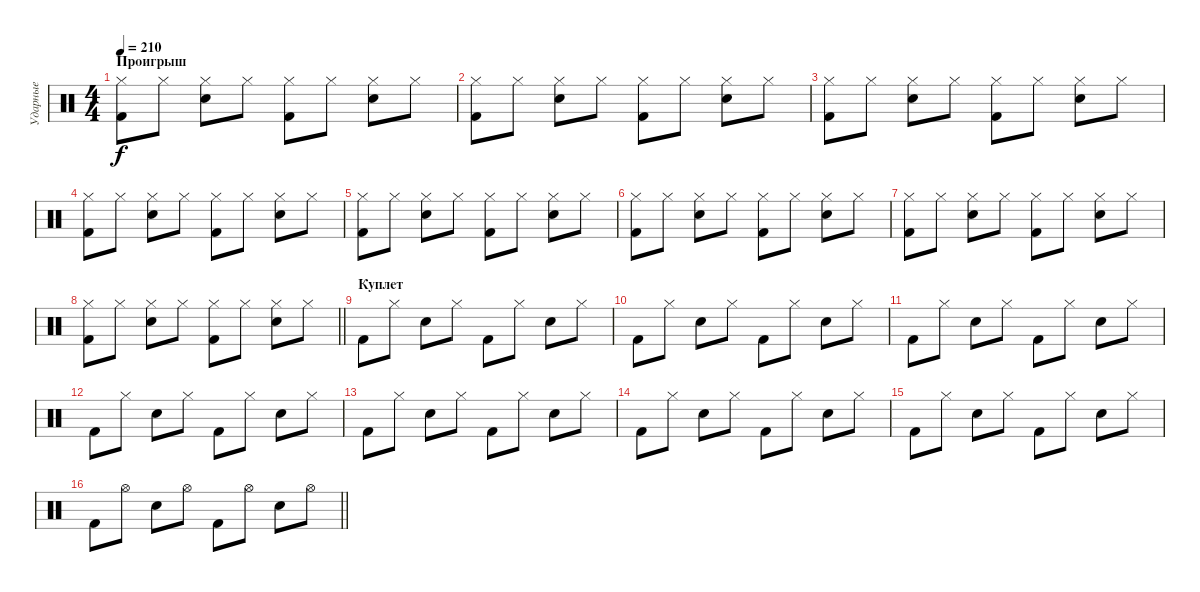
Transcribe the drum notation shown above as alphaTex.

\track ("Ударные" "Ударные") {instrument percussion}
\staff {score}
\articulation defaults
\ts (4 4)
\section ("" "Проигрыш")
\tempo 210
\clef neutral
\ks c
("Hi-Hat (closed)" "Kick (hit) 2").8{dy f} "Hi-Hat (closed)".8 ("Hi-Hat (closed)" "Electric Snare (hit)").8 "Hi-Hat (closed)".8 ("Hi-Hat (closed)" "Kick (hit) 2").8 "Hi-Hat (closed)".8 ("Hi-Hat (closed)" "Electric Snare (hit)").8 "Hi-Hat (closed)".8 |
("Hi-Hat (closed)" "Kick (hit) 2").8 "Hi-Hat (closed)".8 ("Hi-Hat (closed)" "Electric Snare (hit)").8 "Hi-Hat (closed)".8 ("Hi-Hat (closed)" "Kick (hit) 2").8 "Hi-Hat (closed)".8 ("Hi-Hat (closed)" "Electric Snare (hit)").8 "Hi-Hat (closed)".8 |
("Hi-Hat (closed)" "Kick (hit) 2").8 "Hi-Hat (closed)".8 ("Hi-Hat (closed)" "Electric Snare (hit)").8 "Hi-Hat (closed)".8 ("Hi-Hat (closed)" "Kick (hit) 2").8 "Hi-Hat (closed)".8 ("Hi-Hat (closed)" "Electric Snare (hit)").8 "Hi-Hat (closed)".8 |
("Hi-Hat (closed)" "Kick (hit) 2").8 "Hi-Hat (closed)".8 ("Hi-Hat (closed)" "Electric Snare (hit)").8 "Hi-Hat (closed)".8 ("Hi-Hat (closed)" "Kick (hit) 2").8 "Hi-Hat (closed)".8 ("Hi-Hat (closed)" "Electric Snare (hit)").8 "Hi-Hat (closed)".8 |
("Hi-Hat (closed)" "Kick (hit) 2").8 "Hi-Hat (closed)".8 ("Hi-Hat (closed)" "Electric Snare (hit)").8 "Hi-Hat (closed)".8 ("Hi-Hat (closed)" "Kick (hit) 2").8 "Hi-Hat (closed)".8 ("Hi-Hat (closed)" "Electric Snare (hit)").8 "Hi-Hat (closed)".8 |
("Hi-Hat (closed)" "Kick (hit) 2").8 "Hi-Hat (closed)".8 ("Hi-Hat (closed)" "Electric Snare (hit)").8 "Hi-Hat (closed)".8 ("Hi-Hat (closed)" "Kick (hit) 2").8 "Hi-Hat (closed)".8 ("Hi-Hat (closed)" "Electric Snare (hit)").8 "Hi-Hat (closed)".8 |
("Hi-Hat (closed)" "Kick (hit) 2").8 "Hi-Hat (closed)".8 ("Hi-Hat (closed)" "Electric Snare (hit)").8 "Hi-Hat (closed)".8 ("Hi-Hat (closed)" "Kick (hit) 2").8 "Hi-Hat (closed)".8 ("Hi-Hat (closed)" "Electric Snare (hit)").8 "Hi-Hat (closed)".8 |
\barLineRight lightlight
("Hi-Hat (closed)" "Kick (hit) 2").8 "Hi-Hat (closed)".8 ("Hi-Hat (closed)" "Electric Snare (hit)").8 "Hi-Hat (closed)".8 ("Hi-Hat (closed)" "Kick (hit) 2").8 "Hi-Hat (closed)".8 ("Hi-Hat (closed)" "Electric Snare (hit)").8 "Hi-Hat (closed)".8 |
\section ("" "Куплет")
"Kick (hit) 2".8 "Hi-Hat (closed)".8 "Electric Snare (hit)".8 "Hi-Hat (closed)".8 "Kick (hit) 2".8 "Hi-Hat (closed)".8 "Electric Snare (hit)".8 "Hi-Hat (closed)".8 |
"Kick (hit) 2".8 "Hi-Hat (closed)".8 "Electric Snare (hit)".8 "Hi-Hat (closed)".8 "Kick (hit) 2".8 "Hi-Hat (closed)".8 "Electric Snare (hit)".8 "Hi-Hat (closed)".8 |
"Kick (hit) 2".8 "Hi-Hat (closed)".8 "Electric Snare (hit)".8 "Hi-Hat (closed)".8 "Kick (hit) 2".8 "Hi-Hat (closed)".8 "Electric Snare (hit)".8 "Hi-Hat (closed)".8 |
"Kick (hit) 2".8 "Hi-Hat (closed)".8 "Electric Snare (hit)".8 "Hi-Hat (closed)".8 "Kick (hit) 2".8 "Hi-Hat (closed)".8 "Electric Snare (hit)".8 "Hi-Hat (closed)".8 |
"Kick (hit) 2".8 "Hi-Hat (closed)".8 "Electric Snare (hit)".8 "Hi-Hat (closed)".8 "Kick (hit) 2".8 "Hi-Hat (closed)".8 "Electric Snare (hit)".8 "Hi-Hat (closed)".8 |
"Kick (hit) 2".8 "Hi-Hat (closed)".8 "Electric Snare (hit)".8 "Hi-Hat (closed)".8 "Kick (hit) 2".8 "Hi-Hat (closed)".8 "Electric Snare (hit)".8 "Hi-Hat (closed)".8 |
"Kick (hit) 2".8 "Hi-Hat (closed)".8 "Electric Snare (hit)".8 "Hi-Hat (closed)".8 "Kick (hit) 2".8 "Hi-Hat (closed)".8 "Electric Snare (hit)".8 "Hi-Hat (closed)".8 |
\barLineRight lightlight "Kick (hit) 2".8 "Hi-Hat (open)".8 "Electric Snare (hit)".8 "Hi-Hat (open)".8 "Kick (hit) 2".8 "Hi-Hat (open)".8 "Electric Snare (hit)".8 "Hi-Hat (open)".8
